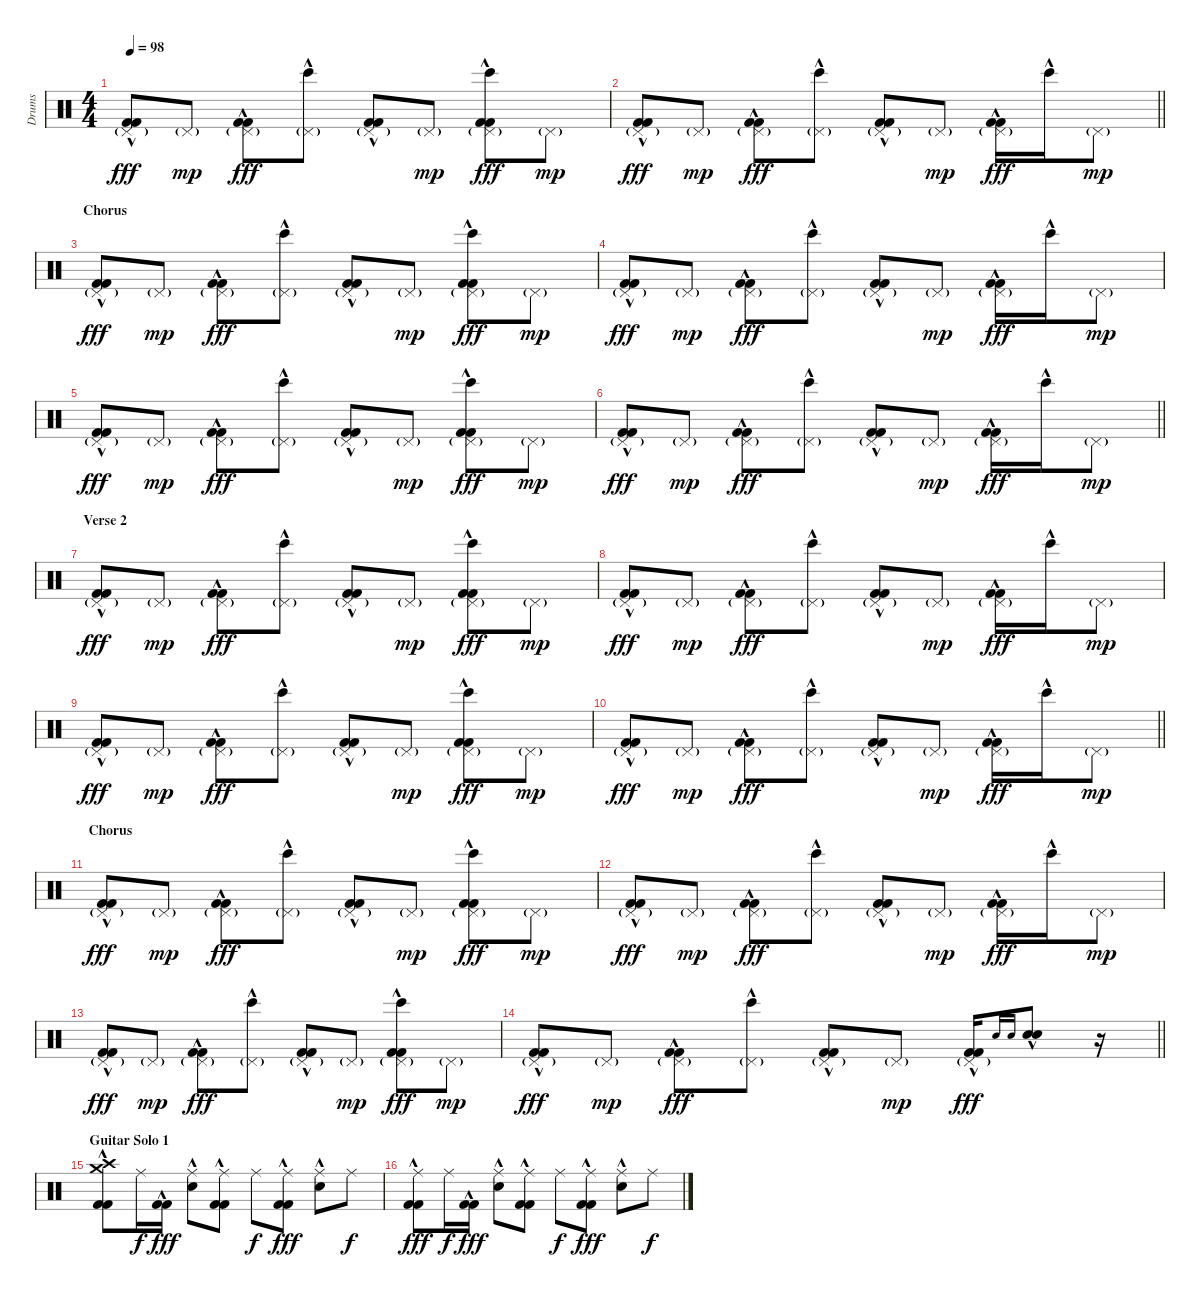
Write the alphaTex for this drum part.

\track ("Drums" "Drums") {instrument percussion}
\staff {score}
\articulation defaults
\ts (4 4)
\tempo 98
\clef neutral
\ks c
("Kick (hit) 2"{hac} "Pedal Hi-Hat (hit)"{g} "Kick (hit) 2"{hac}).8{dy fff} "Pedal Hi-Hat (hit)"{g}.8{dy mp} ("Kick (hit) 2"{hac} "Pedal Hi-Hat (hit)"{g} "Kick (hit) 2"{hac}).8{dy fff} ("Pedal Hi-Hat (hit)"{g} "Bongo High (hit)"{hac}).8 ("Kick (hit) 2"{hac} "Pedal Hi-Hat (hit)"{g} "Kick (hit) 2"{hac}).8 "Pedal Hi-Hat (hit)"{g}.8{dy mp} ("Kick (hit) 2"{hac} "Pedal Hi-Hat (hit)"{g} "Bongo High (hit)"{hac} "Kick (hit) 2"{hac}).8{dy fff} "Pedal Hi-Hat (hit)"{g}.8{dy mp} |
\barLineRight lightlight
("Kick (hit) 2"{hac} "Pedal Hi-Hat (hit)"{g} "Kick (hit) 2"{hac}).8{dy fff} "Pedal Hi-Hat (hit)"{g}.8{dy mp} ("Kick (hit) 2"{hac} "Pedal Hi-Hat (hit)"{g} "Kick (hit) 2"{hac}).8{dy fff} ("Pedal Hi-Hat (hit)"{g} "Bongo High (hit)"{hac}).8 ("Kick (hit) 2"{hac} "Pedal Hi-Hat (hit)"{g} "Kick (hit) 2"{hac}).8 "Pedal Hi-Hat (hit)"{g}.8{dy mp} ("Kick (hit) 2"{hac} "Pedal Hi-Hat (hit)"{g} "Kick (hit) 2"{hac}).16{dy fff} "Bongo High (hit)"{hac}.16 "Pedal Hi-Hat (hit)"{g}.8{dy mp} |
\section ("" "Chorus")
("Kick (hit) 2"{hac} "Pedal Hi-Hat (hit)"{g} "Kick (hit) 2"{hac}).8{dy fff} "Pedal Hi-Hat (hit)"{g}.8{dy mp} ("Kick (hit) 2"{hac} "Pedal Hi-Hat (hit)"{g} "Kick (hit) 2"{hac}).8{dy fff} ("Pedal Hi-Hat (hit)"{g} "Bongo High (hit)"{hac}).8 ("Kick (hit) 2"{hac} "Pedal Hi-Hat (hit)"{g} "Kick (hit) 2"{hac}).8 "Pedal Hi-Hat (hit)"{g}.8{dy mp} ("Kick (hit) 2"{hac} "Pedal Hi-Hat (hit)"{g} "Bongo High (hit)"{hac} "Kick (hit) 2"{hac}).8{dy fff} "Pedal Hi-Hat (hit)"{g}.8{dy mp} |
("Kick (hit) 2"{hac} "Pedal Hi-Hat (hit)"{g} "Kick (hit) 2"{hac}).8{dy fff} "Pedal Hi-Hat (hit)"{g}.8{dy mp} ("Kick (hit) 2"{hac} "Pedal Hi-Hat (hit)"{g} "Kick (hit) 2"{hac}).8{dy fff} ("Pedal Hi-Hat (hit)"{g} "Bongo High (hit)"{hac}).8 ("Kick (hit) 2"{hac} "Pedal Hi-Hat (hit)"{g} "Kick (hit) 2"{hac}).8 "Pedal Hi-Hat (hit)"{g}.8{dy mp} ("Kick (hit) 2"{hac} "Pedal Hi-Hat (hit)"{g} "Kick (hit) 2"{hac}).16{dy fff} "Bongo High (hit)"{hac}.16 "Pedal Hi-Hat (hit)"{g}.8{dy mp} |
("Kick (hit) 2"{hac} "Pedal Hi-Hat (hit)"{g} "Kick (hit) 2"{hac}).8{dy fff} "Pedal Hi-Hat (hit)"{g}.8{dy mp} ("Kick (hit) 2"{hac} "Pedal Hi-Hat (hit)"{g} "Kick (hit) 2"{hac}).8{dy fff} ("Pedal Hi-Hat (hit)"{g} "Bongo High (hit)"{hac}).8 ("Kick (hit) 2"{hac} "Pedal Hi-Hat (hit)"{g} "Kick (hit) 2"{hac}).8 "Pedal Hi-Hat (hit)"{g}.8{dy mp} ("Kick (hit) 2"{hac} "Pedal Hi-Hat (hit)"{g} "Bongo High (hit)"{hac} "Kick (hit) 2"{hac}).8{dy fff} "Pedal Hi-Hat (hit)"{g}.8{dy mp} |
\barLineRight lightlight
("Kick (hit) 2"{hac} "Pedal Hi-Hat (hit)"{g} "Kick (hit) 2"{hac}).8{dy fff} "Pedal Hi-Hat (hit)"{g}.8{dy mp} ("Kick (hit) 2"{hac} "Pedal Hi-Hat (hit)"{g} "Kick (hit) 2"{hac}).8{dy fff} ("Pedal Hi-Hat (hit)"{g} "Bongo High (hit)"{hac}).8 ("Kick (hit) 2"{hac} "Pedal Hi-Hat (hit)"{g} "Kick (hit) 2"{hac}).8 "Pedal Hi-Hat (hit)"{g}.8{dy mp} ("Kick (hit) 2"{hac} "Pedal Hi-Hat (hit)"{g} "Kick (hit) 2"{hac}).16{dy fff} "Bongo High (hit)"{hac}.16 "Pedal Hi-Hat (hit)"{g}.8{dy mp} |
\section ("" "Verse 2")
("Kick (hit) 2"{hac} "Pedal Hi-Hat (hit)"{g} "Kick (hit) 2"{hac}).8{dy fff} "Pedal Hi-Hat (hit)"{g}.8{dy mp} ("Kick (hit) 2"{hac} "Pedal Hi-Hat (hit)"{g} "Kick (hit) 2"{hac}).8{dy fff} ("Pedal Hi-Hat (hit)"{g} "Bongo High (hit)"{hac}).8 ("Kick (hit) 2"{hac} "Pedal Hi-Hat (hit)"{g} "Kick (hit) 2"{hac}).8 "Pedal Hi-Hat (hit)"{g}.8{dy mp} ("Kick (hit) 2"{hac} "Pedal Hi-Hat (hit)"{g} "Bongo High (hit)"{hac} "Kick (hit) 2"{hac}).8{dy fff} "Pedal Hi-Hat (hit)"{g}.8{dy mp} |
("Kick (hit) 2"{hac} "Pedal Hi-Hat (hit)"{g} "Kick (hit) 2"{hac}).8{dy fff} "Pedal Hi-Hat (hit)"{g}.8{dy mp} ("Kick (hit) 2"{hac} "Pedal Hi-Hat (hit)"{g} "Kick (hit) 2"{hac}).8{dy fff} ("Pedal Hi-Hat (hit)"{g} "Bongo High (hit)"{hac}).8 ("Kick (hit) 2"{hac} "Pedal Hi-Hat (hit)"{g} "Kick (hit) 2"{hac}).8 "Pedal Hi-Hat (hit)"{g}.8{dy mp} ("Kick (hit) 2"{hac} "Pedal Hi-Hat (hit)"{g} "Kick (hit) 2"{hac}).16{dy fff} "Bongo High (hit)"{hac}.16 "Pedal Hi-Hat (hit)"{g}.8{dy mp} |
("Kick (hit) 2"{hac} "Pedal Hi-Hat (hit)"{g} "Kick (hit) 2"{hac}).8{dy fff} "Pedal Hi-Hat (hit)"{g}.8{dy mp} ("Kick (hit) 2"{hac} "Pedal Hi-Hat (hit)"{g} "Kick (hit) 2"{hac}).8{dy fff} ("Pedal Hi-Hat (hit)"{g} "Bongo High (hit)"{hac}).8 ("Kick (hit) 2"{hac} "Pedal Hi-Hat (hit)"{g} "Kick (hit) 2"{hac}).8 "Pedal Hi-Hat (hit)"{g}.8{dy mp} ("Kick (hit) 2"{hac} "Pedal Hi-Hat (hit)"{g} "Bongo High (hit)"{hac} "Kick (hit) 2"{hac}).8{dy fff} "Pedal Hi-Hat (hit)"{g}.8{dy mp} |
\barLineRight lightlight
("Kick (hit) 2"{hac} "Pedal Hi-Hat (hit)"{g} "Kick (hit) 2"{hac}).8{dy fff} "Pedal Hi-Hat (hit)"{g}.8{dy mp} ("Kick (hit) 2"{hac} "Pedal Hi-Hat (hit)"{g} "Kick (hit) 2"{hac}).8{dy fff} ("Pedal Hi-Hat (hit)"{g} "Bongo High (hit)"{hac}).8 ("Kick (hit) 2"{hac} "Pedal Hi-Hat (hit)"{g} "Kick (hit) 2"{hac}).8 "Pedal Hi-Hat (hit)"{g}.8{dy mp} ("Kick (hit) 2"{hac} "Pedal Hi-Hat (hit)"{g} "Kick (hit) 2"{hac}).16{dy fff} "Bongo High (hit)"{hac}.16 "Pedal Hi-Hat (hit)"{g}.8{dy mp} |
\section ("" "Chorus")
("Kick (hit) 2"{hac} "Pedal Hi-Hat (hit)"{g} "Kick (hit) 2"{hac}).8{dy fff} "Pedal Hi-Hat (hit)"{g}.8{dy mp} ("Kick (hit) 2"{hac} "Pedal Hi-Hat (hit)"{g} "Kick (hit) 2"{hac}).8{dy fff} ("Pedal Hi-Hat (hit)"{g} "Bongo High (hit)"{hac}).8 ("Kick (hit) 2"{hac} "Pedal Hi-Hat (hit)"{g} "Kick (hit) 2"{hac}).8 "Pedal Hi-Hat (hit)"{g}.8{dy mp} ("Kick (hit) 2"{hac} "Pedal Hi-Hat (hit)"{g} "Bongo High (hit)"{hac} "Kick (hit) 2"{hac}).8{dy fff} "Pedal Hi-Hat (hit)"{g}.8{dy mp} |
("Kick (hit) 2"{hac} "Pedal Hi-Hat (hit)"{g} "Kick (hit) 2"{hac}).8{dy fff} "Pedal Hi-Hat (hit)"{g}.8{dy mp} ("Kick (hit) 2"{hac} "Pedal Hi-Hat (hit)"{g} "Kick (hit) 2"{hac}).8{dy fff} ("Pedal Hi-Hat (hit)"{g} "Bongo High (hit)"{hac}).8 ("Kick (hit) 2"{hac} "Pedal Hi-Hat (hit)"{g} "Kick (hit) 2"{hac}).8 "Pedal Hi-Hat (hit)"{g}.8{dy mp} ("Kick (hit) 2"{hac} "Pedal Hi-Hat (hit)"{g} "Kick (hit) 2"{hac}).16{dy fff} "Bongo High (hit)"{hac}.16 "Pedal Hi-Hat (hit)"{g}.8{dy mp} |
("Kick (hit) 2"{hac} "Pedal Hi-Hat (hit)"{g} "Kick (hit) 2"{hac}).8{dy fff} "Pedal Hi-Hat (hit)"{g}.8{dy mp} ("Kick (hit) 2"{hac} "Pedal Hi-Hat (hit)"{g} "Kick (hit) 2"{hac}).8{dy fff} ("Pedal Hi-Hat (hit)"{g} "Bongo High (hit)"{hac}).8 ("Kick (hit) 2"{hac} "Pedal Hi-Hat (hit)"{g} "Kick (hit) 2"{hac}).8 "Pedal Hi-Hat (hit)"{g}.8{dy mp} ("Kick (hit) 2"{hac} "Pedal Hi-Hat (hit)"{g} "Bongo High (hit)"{hac} "Kick (hit) 2"{hac}).8{dy fff} "Pedal Hi-Hat (hit)"{g}.8{dy mp} |
\barLineRight lightlight
("Kick (hit) 2"{hac} "Pedal Hi-Hat (hit)"{g} "Kick (hit) 2"{hac}).8{dy fff} "Pedal Hi-Hat (hit)"{g}.8{dy mp} ("Kick (hit) 2"{hac} "Pedal Hi-Hat (hit)"{g} "Kick (hit) 2"{hac}).8{dy fff} ("Pedal Hi-Hat (hit)"{g} "Bongo High (hit)"{hac}).8 ("Kick (hit) 2"{hac} "Pedal Hi-Hat (hit)"{g} "Kick (hit) 2"{hac}).8 "Pedal Hi-Hat (hit)"{g}.8{dy mp} ("Kick (hit) 2"{hac} "Pedal Hi-Hat (hit)"{g} "Kick (hit) 2"{hac}).16{dy fff} "Electric Snare (hit)".16{gr onbeat} "Electric Snare (hit)".16{gr onbeat} ("Electric Snare (hit)"{hac} "Electric Snare (hit)"{hac}).8{volume 10} r.16 |
\section ("" "Guitar Solo 1")
("Kick (hit) 2"{hac} "Crash high (hit)" "Crash medium (hit)" "Kick (hit) 2"{hac}).8 "Ride (middle)".16{dy f} ("Kick (hit) 2"{hac} "Kick (hit) 2"{hac}).16{dy fff} ("Ride (middle)" "Electric Snare (hit)"{hac}).8 ("Kick (hit) 2"{hac} "Ride (middle)" "Kick (hit) 2"{hac}).8 "Ride (middle)".8{dy f} ("Kick (hit) 2"{hac} "Ride (middle)" "Kick (hit) 2"{hac}).8{dy fff} ("Ride (middle)" "Electric Snare (hit)"{hac}).8 "Ride (middle)".8{dy f} |
("Kick (hit) 2"{hac} "Ride (middle)" "Kick (hit) 2"{hac}).8{dy fff} "Ride (middle)".16{dy f} ("Kick (hit) 2"{hac} "Kick (hit) 2"{hac}).16{dy fff} ("Ride (middle)" "Electric Snare (hit)"{hac}).8 ("Kick (hit) 2"{hac} "Ride (middle)" "Kick (hit) 2"{hac}).8 "Ride (middle)".8{dy f} ("Kick (hit) 2"{hac} "Ride (middle)" "Kick (hit) 2"{hac}).8{dy fff} ("Ride (middle)" "Electric Snare (hit)"{hac}).8 "Ride (middle)".8{dy f}
